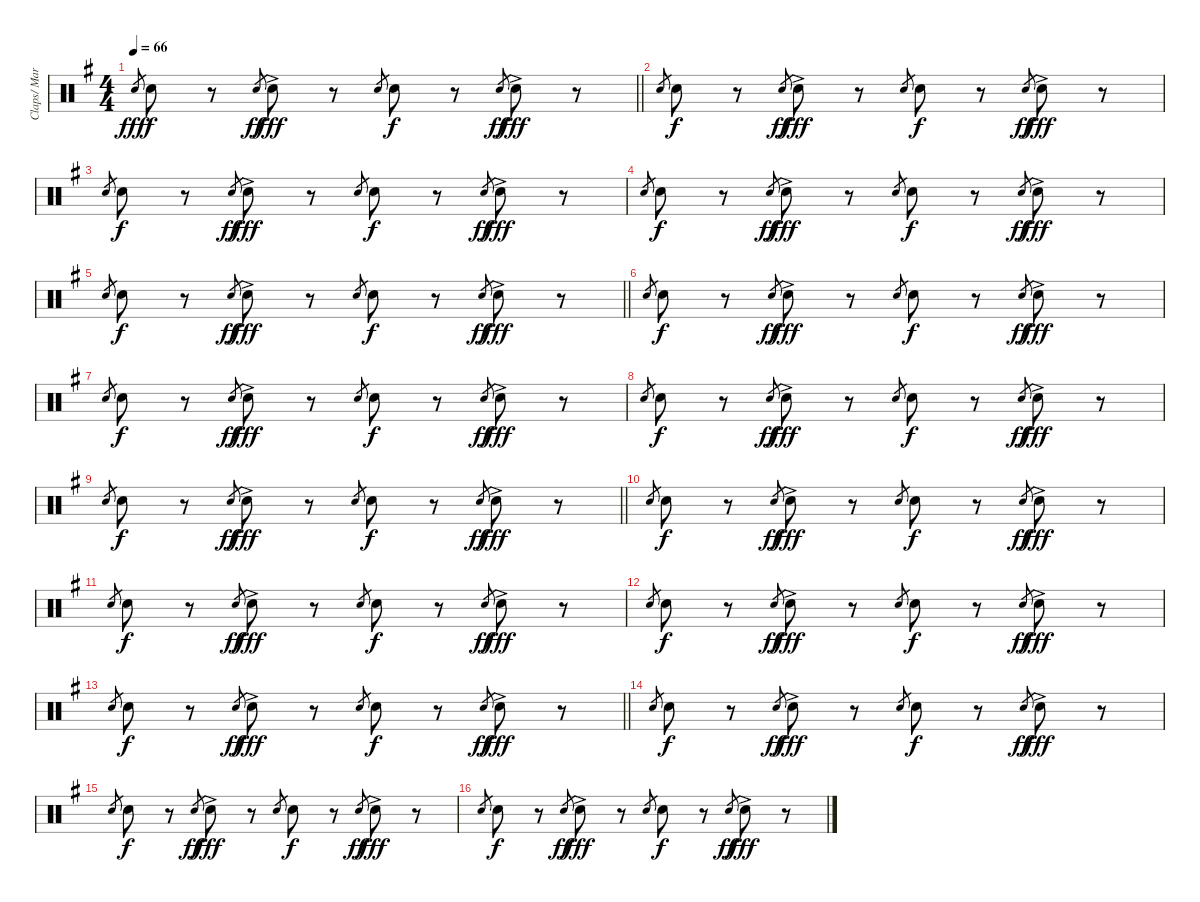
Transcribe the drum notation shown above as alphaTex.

\track ("Claps/ Marching FX" "Claps/ Mar") {instrument percussion}
\staff {score}
\articulation defaults
\ts (4 4)
\tempo 66
\clef neutral
\barLineRight lightlight
\ks g "Hand Clap (hit)".8{gr dy fff} "Hand Clap (hit)".8{dy f balance 12}
r.8 "Hand Clap (hit)".8{gr dy ff} "Hand Clap (hit)"{ac}.8{dy fff balance 4} r.8 "Hand Clap (hit)".8{gr} "Hand Clap (hit)".8{dy f balance 12} r.8 "Hand Clap (hit)".8{gr dy ff} "Hand Clap (hit)"{ac}.8{dy fff balance 4} r.8 |
"Hand Clap (hit)".8{gr} "Hand Clap (hit)".8{dy f balance 12} r.8 "Hand Clap (hit)".8{gr dy ff} "Hand Clap (hit)"{ac}.8{dy fff balance 4} r.8 "Hand Clap (hit)".8{gr} "Hand Clap (hit)".8{dy f balance 12} r.8 "Hand Clap (hit)".8{gr dy ff} "Hand Clap (hit)"{ac}.8{dy fff balance 4} r.8 |
"Hand Clap (hit)".8{gr} "Hand Clap (hit)".8{dy f balance 12} r.8 "Hand Clap (hit)".8{gr dy ff} "Hand Clap (hit)"{ac}.8{dy fff balance 4} r.8 "Hand Clap (hit)".8{gr} "Hand Clap (hit)".8{dy f balance 12} r.8 "Hand Clap (hit)".8{gr dy ff} "Hand Clap (hit)"{ac}.8{dy fff balance 4} r.8 |
"Hand Clap (hit)".8{gr} "Hand Clap (hit)".8{dy f balance 12} r.8 "Hand Clap (hit)".8{gr dy ff} "Hand Clap (hit)"{ac}.8{dy fff balance 4} r.8 "Hand Clap (hit)".8{gr} "Hand Clap (hit)".8{dy f balance 12} r.8 "Hand Clap (hit)".8{gr dy ff} "Hand Clap (hit)"{ac}.8{dy fff balance 4} r.8 |
\barLineRight lightlight "Hand Clap (hit)".8{gr} "Hand Clap (hit)".8{dy f balance 12}
r.8 "Hand Clap (hit)".8{gr dy ff} "Hand Clap (hit)"{ac}.8{dy fff balance 4} r.8 "Hand Clap (hit)".8{gr} "Hand Clap (hit)".8{dy f balance 12} r.8 "Hand Clap (hit)".8{gr dy ff} "Hand Clap (hit)"{ac}.8{dy fff balance 4} r.8 |
"Hand Clap (hit)".8{gr} "Hand Clap (hit)".8{dy f balance 12} r.8 "Hand Clap (hit)".8{gr dy ff} "Hand Clap (hit)"{ac}.8{dy fff balance 4} r.8 "Hand Clap (hit)".8{gr} "Hand Clap (hit)".8{dy f balance 12} r.8 "Hand Clap (hit)".8{gr dy ff} "Hand Clap (hit)"{ac}.8{dy fff balance 4} r.8 |
"Hand Clap (hit)".8{gr} "Hand Clap (hit)".8{dy f balance 12} r.8 "Hand Clap (hit)".8{gr dy ff} "Hand Clap (hit)"{ac}.8{dy fff balance 4} r.8 "Hand Clap (hit)".8{gr} "Hand Clap (hit)".8{dy f balance 12} r.8 "Hand Clap (hit)".8{gr dy ff} "Hand Clap (hit)"{ac}.8{dy fff balance 4} r.8 |
"Hand Clap (hit)".8{gr} "Hand Clap (hit)".8{dy f balance 12} r.8 "Hand Clap (hit)".8{gr dy ff} "Hand Clap (hit)"{ac}.8{dy fff balance 4} r.8 "Hand Clap (hit)".8{gr} "Hand Clap (hit)".8{dy f balance 12} r.8 "Hand Clap (hit)".8{gr dy ff} "Hand Clap (hit)"{ac}.8{dy fff balance 4} r.8 |
\barLineRight lightlight "Hand Clap (hit)".8{gr} "Hand Clap (hit)".8{dy f balance 12}
r.8 "Hand Clap (hit)".8{gr dy ff} "Hand Clap (hit)"{ac}.8{dy fff balance 4} r.8 "Hand Clap (hit)".8{gr} "Hand Clap (hit)".8{dy f balance 12} r.8 "Hand Clap (hit)".8{gr dy ff} "Hand Clap (hit)"{ac}.8{dy fff balance 4} r.8 |
"Hand Clap (hit)".8{gr} "Hand Clap (hit)".8{dy f balance 12} r.8 "Hand Clap (hit)".8{gr dy ff} "Hand Clap (hit)"{ac}.8{dy fff balance 4} r.8 "Hand Clap (hit)".8{gr} "Hand Clap (hit)".8{dy f balance 12} r.8 "Hand Clap (hit)".8{gr dy ff} "Hand Clap (hit)"{ac}.8{dy fff balance 4} r.8 |
"Hand Clap (hit)".8{gr} "Hand Clap (hit)".8{dy f balance 12} r.8 "Hand Clap (hit)".8{gr dy ff} "Hand Clap (hit)"{ac}.8{dy fff balance 4} r.8 "Hand Clap (hit)".8{gr} "Hand Clap (hit)".8{dy f balance 12} r.8 "Hand Clap (hit)".8{gr dy ff} "Hand Clap (hit)"{ac}.8{dy fff balance 4} r.8 |
"Hand Clap (hit)".8{gr} "Hand Clap (hit)".8{dy f balance 12} r.8 "Hand Clap (hit)".8{gr dy ff} "Hand Clap (hit)"{ac}.8{dy fff balance 4} r.8 "Hand Clap (hit)".8{gr} "Hand Clap (hit)".8{dy f balance 12} r.8 "Hand Clap (hit)".8{gr dy ff} "Hand Clap (hit)"{ac}.8{dy fff balance 4} r.8 |
\barLineRight lightlight "Hand Clap (hit)".8{gr} "Hand Clap (hit)".8{dy f balance 12}
r.8 "Hand Clap (hit)".8{gr dy ff} "Hand Clap (hit)"{ac}.8{dy fff balance 4} r.8 "Hand Clap (hit)".8{gr} "Hand Clap (hit)".8{dy f balance 12} r.8 "Hand Clap (hit)".8{gr dy ff} "Hand Clap (hit)"{ac}.8{dy fff balance 4} r.8 |
"Hand Clap (hit)".8{gr} "Hand Clap (hit)".8{dy f balance 12} r.8 "Hand Clap (hit)".8{gr dy ff} "Hand Clap (hit)"{ac}.8{dy fff balance 4} r.8 "Hand Clap (hit)".8{gr} "Hand Clap (hit)".8{dy f balance 12} r.8 "Hand Clap (hit)".8{gr dy ff} "Hand Clap (hit)"{ac}.8{dy fff balance 4} r.8 |
"Hand Clap (hit)".8{gr} "Hand Clap (hit)".8{dy f volume 5 balance 12} r.8 "Hand Clap (hit)".8{gr dy ff} "Hand Clap (hit)"{ac}.8{dy fff balance 4} r.8 "Hand Clap (hit)".8{gr} "Hand Clap (hit)".8{dy f balance 12} r.8 "Hand Clap (hit)".8{gr dy ff} "Hand Clap (hit)"{ac}.8{dy fff balance 4} r.8 |
"Hand Clap (hit)".8{gr} "Hand Clap (hit)".8{dy f balance 12} r.8 "Hand Clap (hit)".8{gr dy ff} "Hand Clap (hit)"{ac}.8{dy fff balance 4} r.8 "Hand Clap (hit)".8{gr} "Hand Clap (hit)".8{dy f balance 12} r.8 "Hand Clap (hit)".8{gr dy ff} "Hand Clap (hit)"{ac}.8{dy fff balance 4} r.8
